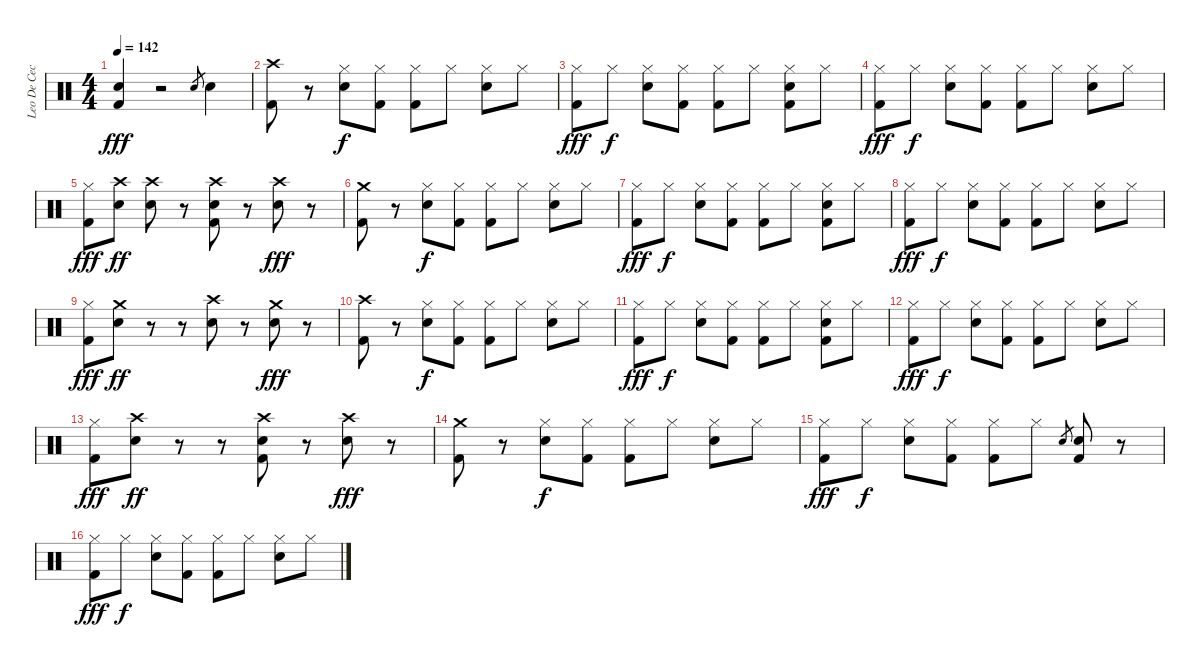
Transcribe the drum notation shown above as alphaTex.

\track ("Leo De Cecco" "Leo De Cec") {instrument percussion}
\staff {score}
\articulation defaults
\ts (4 4)
\tempo 142
\clef neutral
\ks c
("Electric Snare (hit)" "Kick (hit) 2").4{dy fff} r.2 "Electric Snare (hit)".8{gr} "Electric Snare (hit)".4 |
("Crash high (hit)" "Kick (hit) 2").8 r.8 ("Hi-Hat (closed)" "Electric Snare (hit)").8{dy f} ("Hi-Hat (closed)" "Kick (hit) 2").8 ("Hi-Hat (closed)" "Kick (hit) 2").8 "Hi-Hat (closed)".8 ("Hi-Hat (closed)" "Electric Snare (hit)").8 "Hi-Hat (closed)".8 |
("Hi-Hat (closed)" "Kick (hit) 2").8{dy fff} "Hi-Hat (closed)".8{dy f} ("Hi-Hat (closed)" "Electric Snare (hit)").8 ("Hi-Hat (closed)" "Kick (hit) 2").8 ("Hi-Hat (closed)" "Kick (hit) 2").8 "Hi-Hat (closed)".8 ("Hi-Hat (closed)" "Electric Snare (hit)" "Kick (hit) 2").8 "Hi-Hat (closed)".8 |
("Hi-Hat (closed)" "Kick (hit) 2").8{dy fff} "Hi-Hat (closed)".8{dy f} ("Hi-Hat (closed)" "Electric Snare (hit)").8 ("Hi-Hat (closed)" "Kick (hit) 2").8 ("Hi-Hat (closed)" "Kick (hit) 2").8 "Hi-Hat (closed)".8 ("Hi-Hat (closed)" "Electric Snare (hit)").8 "Hi-Hat (closed)".8 |
("Hi-Hat (closed)" "Kick (hit) 2").8{dy fff} ("Crash high (hit)" "Electric Snare (hit)").8{dy ff} ("Crash high (hit)" "Electric Snare (hit)").8 r.8 ("Crash high (hit)" "Electric Snare (hit)" "Kick (hit) 2").8 r.8 ("Crash high (hit)" "Electric Snare (hit)").8{dy fff} r.8 |
("Crash medium (hit)" "Kick (hit) 2").8 r.8 ("Hi-Hat (closed)" "Electric Snare (hit)").8{dy f} ("Hi-Hat (closed)" "Kick (hit) 2").8 ("Hi-Hat (closed)" "Kick (hit) 2").8 "Hi-Hat (closed)".8 ("Hi-Hat (closed)" "Electric Snare (hit)").8 "Hi-Hat (closed)".8 |
("Hi-Hat (closed)" "Kick (hit) 2").8{dy fff} "Hi-Hat (closed)".8{dy f} ("Hi-Hat (closed)" "Electric Snare (hit)").8 ("Hi-Hat (closed)" "Kick (hit) 2").8 ("Hi-Hat (closed)" "Kick (hit) 2").8 "Hi-Hat (closed)".8 ("Hi-Hat (closed)" "Electric Snare (hit)" "Kick (hit) 2").8 "Hi-Hat (closed)".8 |
("Hi-Hat (closed)" "Kick (hit) 2").8{dy fff} "Hi-Hat (closed)".8{dy f} ("Hi-Hat (closed)" "Electric Snare (hit)").8 ("Hi-Hat (closed)" "Kick (hit) 2").8 ("Hi-Hat (closed)" "Kick (hit) 2").8 "Hi-Hat (closed)".8 ("Hi-Hat (closed)" "Electric Snare (hit)").8 "Hi-Hat (closed)".8 |
("Hi-Hat (closed)" "Kick (hit) 2").8{dy fff} ("Crash medium (hit)" "Electric Snare (hit)").8{dy ff} r.8 r.8 ("Crash high (hit)" "Electric Snare (hit)").8 r.8 ("Crash medium (hit)" "Electric Snare (hit)").8{dy fff} r.8 |
("Crash high (hit)" "Kick (hit) 2").8 r.8 ("Hi-Hat (closed)" "Electric Snare (hit)").8{dy f} ("Hi-Hat (closed)" "Kick (hit) 2").8 ("Hi-Hat (closed)" "Kick (hit) 2").8 "Hi-Hat (closed)".8 ("Hi-Hat (closed)" "Electric Snare (hit)").8 "Hi-Hat (closed)".8 |
("Hi-Hat (closed)" "Kick (hit) 2").8{dy fff} "Hi-Hat (closed)".8{dy f} ("Hi-Hat (closed)" "Electric Snare (hit)").8 ("Hi-Hat (closed)" "Kick (hit) 2").8 ("Hi-Hat (closed)" "Kick (hit) 2").8 "Hi-Hat (closed)".8 ("Hi-Hat (closed)" "Electric Snare (hit)" "Kick (hit) 2").8 "Hi-Hat (closed)".8 |
("Hi-Hat (closed)" "Kick (hit) 2").8{dy fff} "Hi-Hat (closed)".8{dy f} ("Hi-Hat (closed)" "Electric Snare (hit)").8 ("Hi-Hat (closed)" "Kick (hit) 2").8 ("Hi-Hat (closed)" "Kick (hit) 2").8 "Hi-Hat (closed)".8 ("Hi-Hat (closed)" "Electric Snare (hit)").8 "Hi-Hat (closed)".8 |
("Hi-Hat (closed)" "Kick (hit) 2").8{dy fff} ("Crash high (hit)" "Electric Snare (hit)").8{dy ff} r.8 r.8 ("Crash high (hit)" "Electric Snare (hit)" "Kick (hit) 2").8 r.8 ("Crash high (hit)" "Electric Snare (hit)").8{dy fff} r.8 |
("Crash medium (hit)" "Kick (hit) 2").8 r.8 ("Hi-Hat (closed)" "Electric Snare (hit)").8{dy f} ("Hi-Hat (closed)" "Kick (hit) 2").8 ("Hi-Hat (closed)" "Kick (hit) 2").8 "Hi-Hat (closed)".8 ("Hi-Hat (closed)" "Electric Snare (hit)").8 "Hi-Hat (closed)".8 |
("Hi-Hat (closed)" "Kick (hit) 2").8{dy fff} "Hi-Hat (closed)".8{dy f} ("Hi-Hat (closed)" "Electric Snare (hit)").8 ("Hi-Hat (closed)" "Kick (hit) 2").8 ("Hi-Hat (closed)" "Kick (hit) 2").8 "Hi-Hat (closed)".8 "Electric Snare (hit)".8{gr} ("Electric Snare (hit)" "Kick (hit) 2").8 r.8 |
("Hi-Hat (closed)" "Kick (hit) 2").8{dy fff} "Hi-Hat (closed)".8{dy f} ("Hi-Hat (closed)" "Electric Snare (hit)").8 ("Hi-Hat (closed)" "Kick (hit) 2").8 ("Hi-Hat (closed)" "Kick (hit) 2").8 "Hi-Hat (closed)".8 ("Hi-Hat (closed)" "Electric Snare (hit)").8 "Hi-Hat (closed)".8
